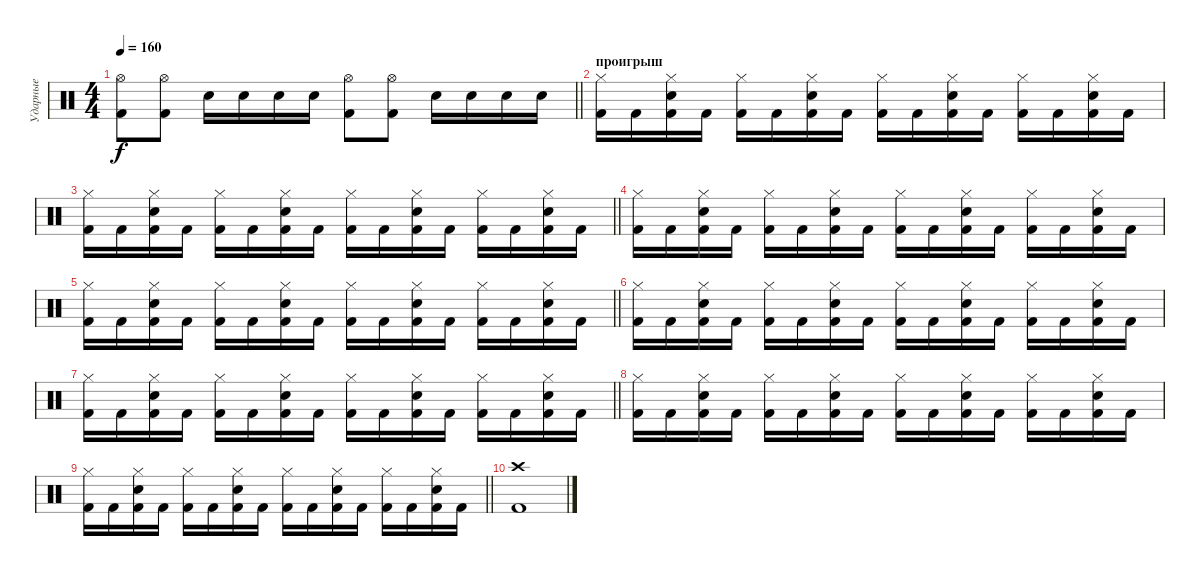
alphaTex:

\track ("Ударные" "Ударные") {instrument percussion}
\staff {score}
\articulation defaults
\ts (4 4)
\tempo 160
\clef neutral
\barLineRight lightlight
\ks c
("Kick (hit) 2" "Hi-Hat (open)").8{dy f} ("Kick (hit) 2" "Hi-Hat (open)").8 "Snare (hit) 2".16 "Snare (hit) 2".16 "Snare (hit) 2".16 "Snare (hit) 2".16 ("Kick (hit) 2" "Hi-Hat (open)").8 ("Kick (hit) 2" "Hi-Hat (open)").8 "Snare (hit) 2".16 "Snare (hit) 2".16 "Snare (hit) 2".16 "Snare (hit) 2".16 |
\section ("" "проигрыш")
("Hi-Hat (closed)" "Kick (hit) 2").16 "Kick (hit) 2".16 ("Hi-Hat (closed)" "Kick (hit) 2" "Electric Snare (hit)").16 "Kick (hit) 2".16 ("Hi-Hat (closed)" "Kick (hit) 2").16 "Kick (hit) 2".16 ("Hi-Hat (closed)" "Kick (hit) 2" "Electric Snare (hit)").16 "Kick (hit) 2".16 ("Hi-Hat (closed)" "Kick (hit) 2").16 "Kick (hit) 2".16 ("Hi-Hat (closed)" "Kick (hit) 2" "Electric Snare (hit)").16 "Kick (hit) 2".16 ("Hi-Hat (closed)" "Kick (hit) 2").16 "Kick (hit) 2".16 ("Hi-Hat (closed)" "Kick (hit) 2" "Electric Snare (hit)").16 "Kick (hit) 2".16 |
\barLineRight lightlight
("Hi-Hat (closed)" "Kick (hit) 2").16 "Kick (hit) 2".16 ("Hi-Hat (closed)" "Kick (hit) 2" "Electric Snare (hit)").16 "Kick (hit) 2".16 ("Hi-Hat (closed)" "Kick (hit) 2").16 "Kick (hit) 2".16 ("Hi-Hat (closed)" "Kick (hit) 2" "Electric Snare (hit)").16 "Kick (hit) 2".16 ("Hi-Hat (closed)" "Kick (hit) 2").16 "Kick (hit) 2".16 ("Hi-Hat (closed)" "Kick (hit) 2" "Electric Snare (hit)").16 "Kick (hit) 2".16 ("Hi-Hat (closed)" "Kick (hit) 2").16 "Kick (hit) 2".16 ("Hi-Hat (closed)" "Kick (hit) 2" "Electric Snare (hit)").16 "Kick (hit) 2".16 |
("Hi-Hat (closed)" "Kick (hit) 2").16 "Kick (hit) 2".16 ("Hi-Hat (closed)" "Kick (hit) 2" "Electric Snare (hit)").16 "Kick (hit) 2".16 ("Hi-Hat (closed)" "Kick (hit) 2").16 "Kick (hit) 2".16 ("Hi-Hat (closed)" "Kick (hit) 2" "Electric Snare (hit)").16 "Kick (hit) 2".16 ("Hi-Hat (closed)" "Kick (hit) 2").16 "Kick (hit) 2".16 ("Hi-Hat (closed)" "Kick (hit) 2" "Electric Snare (hit)").16 "Kick (hit) 2".16 ("Hi-Hat (closed)" "Kick (hit) 2").16 "Kick (hit) 2".16 ("Hi-Hat (closed)" "Kick (hit) 2" "Electric Snare (hit)").16 "Kick (hit) 2".16 |
\barLineRight lightlight
("Hi-Hat (closed)" "Kick (hit) 2").16 "Kick (hit) 2".16 ("Hi-Hat (closed)" "Kick (hit) 2" "Electric Snare (hit)").16 "Kick (hit) 2".16 ("Hi-Hat (closed)" "Kick (hit) 2").16 "Kick (hit) 2".16 ("Hi-Hat (closed)" "Kick (hit) 2" "Electric Snare (hit)").16 "Kick (hit) 2".16 ("Hi-Hat (closed)" "Kick (hit) 2").16 "Kick (hit) 2".16 ("Hi-Hat (closed)" "Kick (hit) 2" "Electric Snare (hit)").16 "Kick (hit) 2".16 ("Hi-Hat (closed)" "Kick (hit) 2").16 "Kick (hit) 2".16 ("Hi-Hat (closed)" "Kick (hit) 2" "Electric Snare (hit)").16 "Kick (hit) 2".16 |
("Hi-Hat (closed)" "Kick (hit) 2").16 "Kick (hit) 2".16 ("Hi-Hat (closed)" "Kick (hit) 2" "Electric Snare (hit)").16 "Kick (hit) 2".16 ("Hi-Hat (closed)" "Kick (hit) 2").16 "Kick (hit) 2".16 ("Hi-Hat (closed)" "Kick (hit) 2" "Electric Snare (hit)").16 "Kick (hit) 2".16 ("Hi-Hat (closed)" "Kick (hit) 2").16 "Kick (hit) 2".16 ("Hi-Hat (closed)" "Kick (hit) 2" "Electric Snare (hit)").16 "Kick (hit) 2".16 ("Hi-Hat (closed)" "Kick (hit) 2").16 "Kick (hit) 2".16 ("Hi-Hat (closed)" "Kick (hit) 2" "Electric Snare (hit)").16 "Kick (hit) 2".16 |
\barLineRight lightlight
("Hi-Hat (closed)" "Kick (hit) 2").16 "Kick (hit) 2".16 ("Hi-Hat (closed)" "Kick (hit) 2" "Electric Snare (hit)").16 "Kick (hit) 2".16 ("Hi-Hat (closed)" "Kick (hit) 2").16 "Kick (hit) 2".16 ("Hi-Hat (closed)" "Kick (hit) 2" "Electric Snare (hit)").16 "Kick (hit) 2".16 ("Hi-Hat (closed)" "Kick (hit) 2").16 "Kick (hit) 2".16 ("Hi-Hat (closed)" "Kick (hit) 2" "Electric Snare (hit)").16 "Kick (hit) 2".16 ("Hi-Hat (closed)" "Kick (hit) 2").16 "Kick (hit) 2".16 ("Hi-Hat (closed)" "Kick (hit) 2" "Electric Snare (hit)").16 "Kick (hit) 2".16 |
("Hi-Hat (closed)" "Kick (hit) 2").16 "Kick (hit) 2".16 ("Hi-Hat (closed)" "Kick (hit) 2" "Electric Snare (hit)").16 "Kick (hit) 2".16 ("Hi-Hat (closed)" "Kick (hit) 2").16 "Kick (hit) 2".16 ("Hi-Hat (closed)" "Kick (hit) 2" "Electric Snare (hit)").16 "Kick (hit) 2".16 ("Hi-Hat (closed)" "Kick (hit) 2").16 "Kick (hit) 2".16 ("Hi-Hat (closed)" "Kick (hit) 2" "Electric Snare (hit)").16 "Kick (hit) 2".16 ("Hi-Hat (closed)" "Kick (hit) 2").16 "Kick (hit) 2".16 ("Hi-Hat (closed)" "Kick (hit) 2" "Electric Snare (hit)").16 "Kick (hit) 2".16 |
\barLineRight lightlight
("Hi-Hat (closed)" "Kick (hit) 2").16 "Kick (hit) 2".16 ("Hi-Hat (closed)" "Kick (hit) 2" "Electric Snare (hit)").16 "Kick (hit) 2".16 ("Hi-Hat (closed)" "Kick (hit) 2").16 "Kick (hit) 2".16 ("Hi-Hat (closed)" "Kick (hit) 2" "Electric Snare (hit)").16 "Kick (hit) 2".16 ("Hi-Hat (closed)" "Kick (hit) 2").16 "Kick (hit) 2".16 ("Hi-Hat (closed)" "Kick (hit) 2" "Electric Snare (hit)").16 "Kick (hit) 2".16 ("Hi-Hat (closed)" "Kick (hit) 2").16 "Kick (hit) 2".16 ("Hi-Hat (closed)" "Kick (hit) 2" "Electric Snare (hit)").16 "Kick (hit) 2".16 |
("Kick (hit) 2" "Crash high (hit)").1
